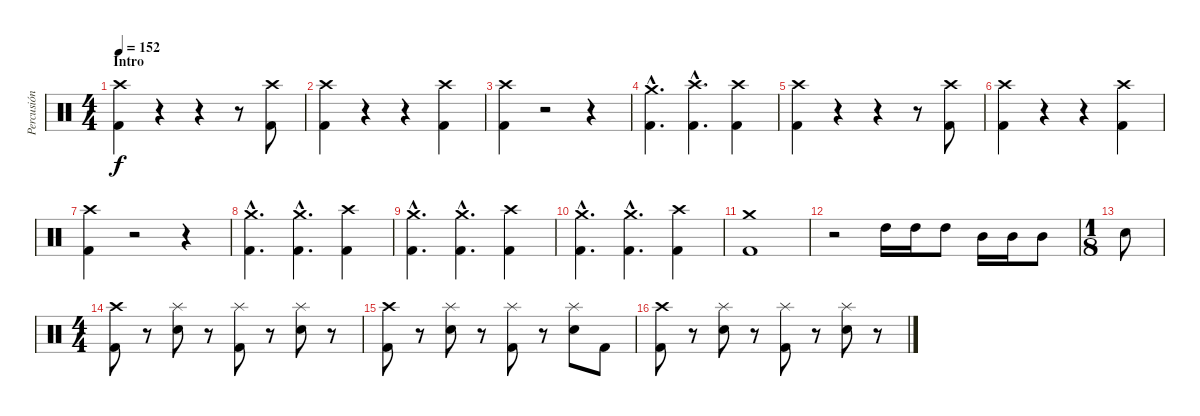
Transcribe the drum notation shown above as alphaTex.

\track ("Percusión" "Percusión") {instrument percussion}
\staff {score}
\articulation defaults
\ts (4 4)
\section ("" "Intro")
\tempo 152
\clef neutral
\ks c
("Crash high (hit)" "Kick (hit) 2").4{dy f} r.4 r.4 r.8 ("Crash high (hit)" "Kick (hit) 2").8 |
("Crash high (hit)" "Kick (hit) 2").4 r.4 r.4 ("Crash high (hit)" "Kick (hit) 2").4 |
("Crash high (hit)" "Kick (hit) 2").4 r.2 r.4 |
("Crash medium (hit)"{hac} "Kick (hit) 2"{hac}).4{d} ("Crash high (hit)"{hac} "Kick (hit) 2"{hac}).4{d} ("Crash high (hit)" "Kick (hit) 2").4 |
("Crash high (hit)" "Kick (hit) 2").4 r.4 r.4 r.8 ("Crash high (hit)" "Kick (hit) 2").8 |
("Crash high (hit)" "Kick (hit) 2").4 r.4 r.4 ("Crash high (hit)" "Kick (hit) 2").4 |
("Crash high (hit)" "Kick (hit) 2").4 r.2 r.4 |
("Crash medium (hit)"{hac} "Kick (hit) 2"{hac}).4{d} ("Crash medium (hit)"{hac} "Kick (hit) 2"{hac}).4{d} ("Crash high (hit)" "Kick (hit) 2").4 |
("Crash medium (hit)"{hac} "Kick (hit) 2"{hac}).4{d} ("Crash medium (hit)"{hac} "Kick (hit) 2"{hac}).4{d} ("Crash high (hit)" "Kick (hit) 2").4 |
("Crash medium (hit)"{hac} "Kick (hit) 2"{hac}).4{d} ("Crash medium (hit)"{hac} "Kick (hit) 2"{hac}).4{d} ("Crash high (hit)" "Kick (hit) 2").4 |
("Crash medium (hit)" "Kick (hit) 2").1 |
r.2 "High Tom (hit)".16 "High Tom (hit)".16 "High Tom (hit)".8 "Mid Tom (hit)".16 "Mid Tom (hit)".16 "Mid Tom (hit)".8 |
\ts (1 8)
"Snare (hit) 2".8 |
\ts (4 4)
("Crash high (hit)" "Kick (hit) 2").8 r.8 ("Splash (hit)" "Snare (hit) 2").8 r.8 ("Splash (hit)" "Kick (hit) 2").8 r.8 ("Splash (hit)" "Snare (hit) 2").8 r.8 |
("Crash high (hit)" "Kick (hit) 2").8 r.8 ("Splash (hit)" "Snare (hit) 2").8 r.8 ("Splash (hit)" "Kick (hit) 2").8 r.8 ("Splash (hit)" "Snare (hit) 2").8 "Kick (hit) 2".8 |
("Crash high (hit)" "Kick (hit) 2").8 r.8 ("Splash (hit)" "Snare (hit) 2").8 r.8 ("Splash (hit)" "Kick (hit) 2").8 r.8 ("Splash (hit)" "Snare (hit) 2").8 r.8
